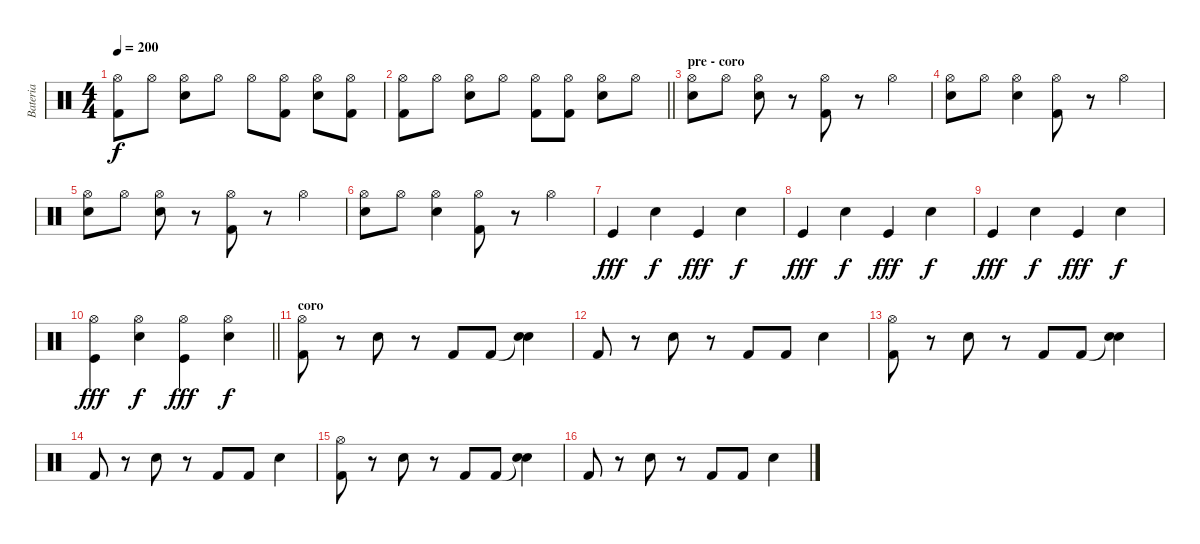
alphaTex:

\track ("Bateria" "Bateria") {instrument percussion}
\staff {score}
\articulation defaults
\ts (4 4)
\tempo 200
\clef neutral
\ks c
("Hi-Hat (open)" "Kick (hit) 2").8{dy f} "Hi-Hat (open)".8 ("Hi-Hat (open)" "Snare (hit) 2").8 "Hi-Hat (open)".8 "Hi-Hat (open)".8 ("Hi-Hat (open)" "Kick (hit) 2").8 ("Hi-Hat (open)" "Snare (hit) 2").8 ("Hi-Hat (open)" "Kick (hit) 2").8 |
\barLineRight lightlight
("Hi-Hat (open)" "Kick (hit) 2").8 "Hi-Hat (open)".8 ("Hi-Hat (open)" "Snare (hit) 2").8 "Hi-Hat (open)".8 ("Hi-Hat (open)" "Kick (hit) 2").8 ("Hi-Hat (open)" "Kick (hit) 2").8 ("Hi-Hat (open)" "Snare (hit) 2").8 "Hi-Hat (open)".8 |
\section ("" "pre - coro")
("Hi-Hat (open)" "Snare (hit) 2").8 "Hi-Hat (open)".8 ("Hi-Hat (open)" "Snare (hit) 2").8 r.8 ("Hi-Hat (open)" "Kick (hit) 2").8 r.8 "Hi-Hat (open)".4 |
("Hi-Hat (open)" "Snare (hit) 2").8 "Hi-Hat (open)".8 ("Hi-Hat (open)" "Snare (hit) 2").4 ("Hi-Hat (open)" "Kick (hit) 2").8 r.8 "Hi-Hat (open)".4 |
("Hi-Hat (open)" "Snare (hit) 2").8 "Hi-Hat (open)".8 ("Hi-Hat (open)" "Snare (hit) 2").8 r.8 ("Hi-Hat (open)" "Kick (hit) 2").8 r.8 "Hi-Hat (open)".4 |
("Hi-Hat (open)" "Snare (hit) 2").8 "Hi-Hat (open)".8 ("Hi-Hat (open)" "Snare (hit) 2").4 ("Hi-Hat (open)" "Kick (hit) 2").8 r.8 "Hi-Hat (open)".4 |
"Kick (hit)".4{dy fff} "Electric Snare (hit)".4{dy f} "Kick (hit)".4{dy fff} "Electric Snare (hit)".4{dy f} |
"Kick (hit)".4{dy fff} "Electric Snare (hit)".4{dy f} "Kick (hit)".4{dy fff} "Electric Snare (hit)".4{dy f} |
"Kick (hit)".4{dy fff} "Electric Snare (hit)".4{dy f} "Kick (hit)".4{dy fff} "Electric Snare (hit)".4{dy f} |
\barLineRight lightlight
("Hi-Hat (open)" "Kick (hit)").4{dy fff} ("Hi-Hat (open)" "Electric Snare (hit)").4{dy f} ("Hi-Hat (open)" "Kick (hit)").4{dy fff} ("Hi-Hat (open)" "Electric Snare (hit)").4{dy f} |
\section ("" "coro")
("Hi-Hat (open)" "Kick (hit) 2").8 r.8 "Snare (hit) 2".8 r.8 "Kick (hit) 2".8 "Kick (hit) 2".8 ("Snare (hit)"{t} "Snare (hit) 2").4 |
"Kick (hit) 2".8 r.8 "Snare (hit) 2".8 r.8 "Kick (hit) 2".8 "Kick (hit) 2".8 "Snare (hit) 2".4 |
("Hi-Hat (open)" "Kick (hit) 2").8 r.8 "Snare (hit) 2".8 r.8 "Kick (hit) 2".8 "Kick (hit) 2".8 ("Snare (hit)"{t} "Snare (hit) 2").4 |
"Kick (hit) 2".8 r.8 "Snare (hit) 2".8 r.8 "Kick (hit) 2".8 "Kick (hit) 2".8 "Snare (hit) 2".4 |
("Hi-Hat (open)" "Kick (hit) 2").8 r.8 "Snare (hit) 2".8 r.8 "Kick (hit) 2".8 "Kick (hit) 2".8 ("Snare (hit)"{t} "Snare (hit) 2").4 |
"Kick (hit) 2".8 r.8 "Snare (hit) 2".8 r.8 "Kick (hit) 2".8 "Kick (hit) 2".8 "Snare (hit) 2".4
